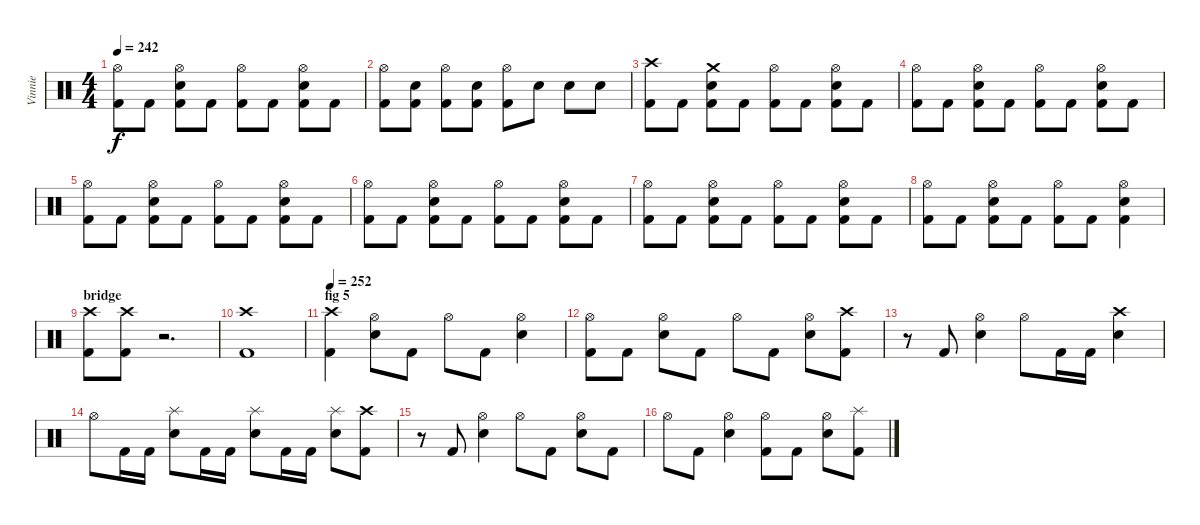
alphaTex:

\track ("Vinnie" "Vinnie") {instrument percussion}
\staff {score}
\articulation defaults
\ts (4 4)
\tempo 242
\clef neutral
\ks c
("Hi-Hat (open)" "Kick (hit) 2").8{dy f} "Kick (hit) 2".8 ("Hi-Hat (open)" "Snare (hit) 2" "Kick (hit) 2").8 "Kick (hit) 2".8 ("Hi-Hat (open)" "Kick (hit) 2").8 "Kick (hit) 2".8 ("Hi-Hat (open)" "Snare (hit) 2" "Kick (hit) 2").8 "Kick (hit) 2".8 |
("Hi-Hat (open)" "Kick (hit) 2").8 ("Snare (hit) 2" "Kick (hit) 2").8 ("Hi-Hat (open)" "Kick (hit) 2").8 ("Snare (hit) 2" "Kick (hit) 2").8 ("Hi-Hat (open)" "Kick (hit) 2").8 "Snare (hit) 2".8 "Snare (hit) 2".8 "Snare (hit) 2".8 |
("Crash high (hit)" "Kick (hit) 2").8 "Kick (hit) 2".8 ("Crash medium (hit)" "Snare (hit) 2" "Kick (hit) 2").8 "Kick (hit) 2".8 ("Hi-Hat (open)" "Kick (hit) 2").8 "Kick (hit) 2".8 ("Hi-Hat (open)" "Snare (hit) 2" "Kick (hit) 2").8 "Kick (hit) 2".8 |
("Hi-Hat (open)" "Kick (hit) 2").8 "Kick (hit) 2".8 ("Hi-Hat (open)" "Snare (hit) 2" "Kick (hit) 2").8 "Kick (hit) 2".8 ("Hi-Hat (open)" "Kick (hit) 2").8 "Kick (hit) 2".8 ("Hi-Hat (open)" "Snare (hit) 2" "Kick (hit) 2").8 "Kick (hit) 2".8 |
("Hi-Hat (open)" "Kick (hit) 2").8 "Kick (hit) 2".8 ("Hi-Hat (open)" "Snare (hit) 2" "Kick (hit) 2").8 "Kick (hit) 2".8 ("Hi-Hat (open)" "Kick (hit) 2").8 "Kick (hit) 2".8 ("Hi-Hat (open)" "Snare (hit) 2" "Kick (hit) 2").8 "Kick (hit) 2".8 |
("Hi-Hat (open)" "Kick (hit) 2").8 "Kick (hit) 2".8 ("Hi-Hat (open)" "Snare (hit) 2" "Kick (hit) 2").8 "Kick (hit) 2".8 ("Hi-Hat (open)" "Kick (hit) 2").8 "Kick (hit) 2".8 ("Hi-Hat (open)" "Snare (hit) 2" "Kick (hit) 2").8 "Kick (hit) 2".8 |
("Hi-Hat (open)" "Kick (hit) 2").8 "Kick (hit) 2".8 ("Hi-Hat (open)" "Snare (hit) 2" "Kick (hit) 2").8 "Kick (hit) 2".8 ("Hi-Hat (open)" "Kick (hit) 2").8 "Kick (hit) 2".8 ("Hi-Hat (open)" "Snare (hit) 2" "Kick (hit) 2").8 "Kick (hit) 2".8 |
("Hi-Hat (open)" "Kick (hit) 2").8 "Kick (hit) 2".8 ("Hi-Hat (open)" "Snare (hit) 2" "Kick (hit) 2").8 "Kick (hit) 2".8 ("Hi-Hat (open)" "Kick (hit) 2").8 "Kick (hit) 2".8 ("Hi-Hat (open)" "Snare (hit) 2" "Kick (hit) 2").4 |
\section ("" "bridge")
("Crash high (hit)" "Kick (hit) 2").8 ("Crash high (hit)" "Kick (hit) 2").8 r.2{d} |
("Crash high (hit)" "Kick (hit) 2").1 |
\section ("" "fig 5")
\tempo 252
("Crash high (hit)" "Kick (hit) 2").4 ("Hi-Hat (open)" "Snare (hit) 2").8 "Kick (hit) 2".8 "Hi-Hat (open)".8 "Kick (hit) 2".8 ("Hi-Hat (open)" "Snare (hit) 2").4 |
("Hi-Hat (open)" "Kick (hit) 2").8 "Kick (hit) 2".8 ("Hi-Hat (open)" "Snare (hit) 2").8 "Kick (hit) 2".8 "Hi-Hat (open)".8 "Kick (hit) 2".8 ("Hi-Hat (open)" "Snare (hit) 2").8 ("Crash high (hit)" "Kick (hit) 2").8 |
r.8 "Kick (hit) 2".8 ("Hi-Hat (open)" "Snare (hit) 2").4 "Hi-Hat (open)".8 "Kick (hit) 2".16 "Kick (hit) 2".16 ("Crash high (hit)" "Snare (hit) 2").4 |
"Hi-Hat (open)".8 "Kick (hit) 2".16 "Kick (hit) 2".16 ("Splash (hit)" "Snare (hit) 2").8 "Kick (hit) 2".16 "Kick (hit) 2".16 ("Splash (hit)" "Snare (hit) 2").8 "Kick (hit) 2".16 "Kick (hit) 2".16 ("Splash (hit)" "Snare (hit) 2").8 ("Crash high (hit)" "Kick (hit) 2").8 |
r.8 "Kick (hit) 2".8 ("Hi-Hat (open)" "Snare (hit) 2").4 "Hi-Hat (open)".8 "Kick (hit) 2".8 ("Hi-Hat (open)" "Snare (hit) 2").8 "Kick (hit) 2".8 |
"Hi-Hat (open)".8 "Kick (hit) 2".8 ("Hi-Hat (open)" "Snare (hit) 2").4 ("Hi-Hat (open)" "Kick (hit) 2").8 "Kick (hit) 2".8 ("Hi-Hat (open)" "Snare (hit) 2").8 ("Splash (hit)" "Kick (hit) 2").8
